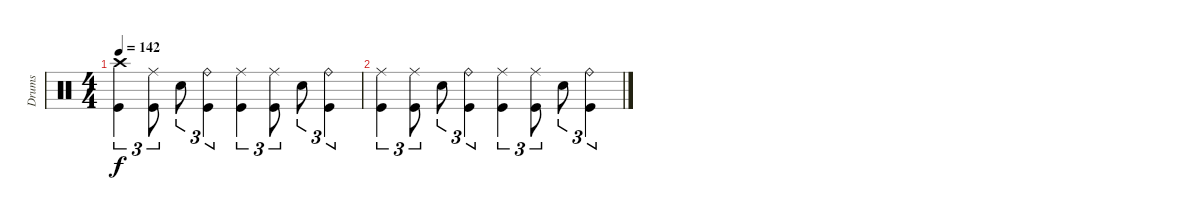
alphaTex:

\track ("Drums" "Drums") {instrument percussion}
\staff
\articulation defaults
\ts (4 4)
\tempo 142
\clef neutral
\ks c
("Crash high (hit)" "Kick (hit)").4{tu (3 2) dy f} ("Ride (middle)" "Kick (hit)").8{tu (3 2)} "Electric Snare (hit)".8{tu (3 2)} ("Ride (bell)" "Kick (hit)").4{tu (3 2)} ("Ride (middle)" "Kick (hit)").4{tu (3 2)} ("Ride (middle)" "Kick (hit)").8{tu (3 2)} "Electric Snare (hit)".8{tu (3 2)} ("Ride (bell)" "Kick (hit)").4{tu (3 2)} |
("Ride (middle)" "Kick (hit)").4{tu (3 2)} ("Ride (middle)" "Kick (hit)").8{tu (3 2)} "Electric Snare (hit)".8{tu (3 2)} ("Ride (bell)" "Kick (hit)").4{tu (3 2)} ("Ride (middle)" "Kick (hit)").4{tu (3 2)} ("Ride (middle)" "Kick (hit)").8{tu (3 2)} "Electric Snare (hit)".8{tu (3 2)} ("Ride (bell)" "Kick (hit)").4{tu (3 2)}
